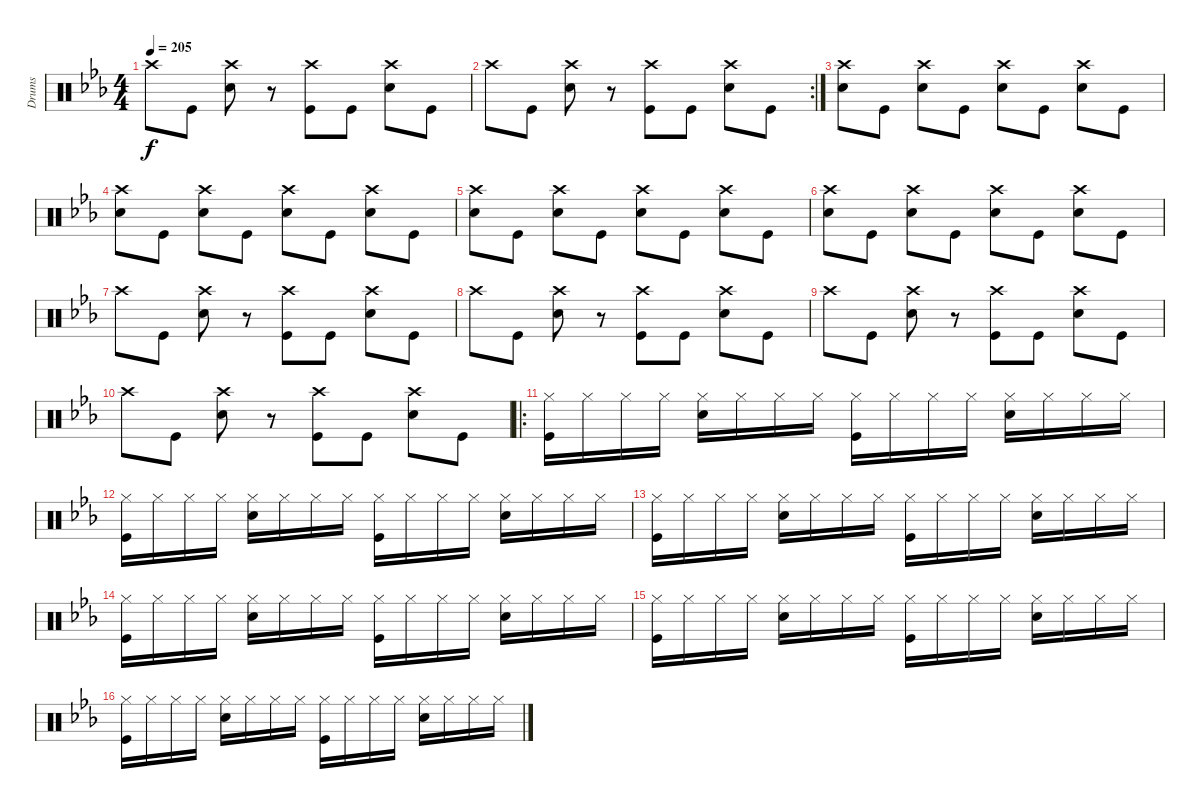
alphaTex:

\track ("Drums" "Drums") {instrument percussion}
\staff {score}
\articulation defaults
\ts (4 4)
\tempo 205
\clef neutral
\ks eb "Crash high (hit)".8{dy f} "Kick (hit)".8
("Crash high (hit)" "Snare (hit) 2").8 r.8 ("Crash high (hit)" "Kick (hit)").8 "Kick (hit)".8 ("Crash high (hit)" "Snare (hit) 2").8 "Kick (hit)".8 |
\rc 2 "Crash high (hit)".8 "Kick (hit)".8
("Crash high (hit)" "Snare (hit) 2").8 r.8 ("Crash high (hit)" "Kick (hit)").8 "Kick (hit)".8 ("Crash high (hit)" "Snare (hit) 2").8 "Kick (hit)".8 |
("Crash high (hit)" "Snare (hit) 2").8 "Kick (hit)".8 ("Crash high (hit)" "Snare (hit) 2").8 "Kick (hit)".8 ("Crash high (hit)" "Snare (hit) 2").8 "Kick (hit)".8 ("Crash high (hit)" "Snare (hit) 2").8 "Kick (hit)".8 |
("Crash high (hit)" "Snare (hit) 2").8 "Kick (hit)".8 ("Crash high (hit)" "Snare (hit) 2").8 "Kick (hit)".8 ("Crash high (hit)" "Snare (hit) 2").8 "Kick (hit)".8 ("Crash high (hit)" "Snare (hit) 2").8 "Kick (hit)".8 |
("Crash high (hit)" "Snare (hit) 2").8 "Kick (hit)".8 ("Crash high (hit)" "Snare (hit) 2").8 "Kick (hit)".8 ("Crash high (hit)" "Snare (hit) 2").8 "Kick (hit)".8 ("Crash high (hit)" "Snare (hit) 2").8 "Kick (hit)".8 |
("Crash high (hit)" "Snare (hit) 2").8 "Kick (hit)".8 ("Crash high (hit)" "Snare (hit) 2").8 "Kick (hit)".8 ("Crash high (hit)" "Snare (hit) 2").8 "Kick (hit)".8 ("Crash high (hit)" "Snare (hit) 2").8 "Kick (hit)".8 |
"Crash high (hit)".8 "Kick (hit)".8 ("Crash high (hit)" "Snare (hit) 2").8 r.8 ("Crash high (hit)" "Kick (hit)").8 "Kick (hit)".8 ("Crash high (hit)" "Snare (hit) 2").8 "Kick (hit)".8 |
"Crash high (hit)".8 "Kick (hit)".8 ("Crash high (hit)" "Snare (hit) 2").8 r.8 ("Crash high (hit)" "Kick (hit)").8 "Kick (hit)".8 ("Crash high (hit)" "Snare (hit) 2").8 "Kick (hit)".8 |
"Crash high (hit)".8 "Kick (hit)".8 ("Crash high (hit)" "Snare (hit) 2").8 r.8 ("Crash high (hit)" "Kick (hit)").8 "Kick (hit)".8 ("Crash high (hit)" "Snare (hit) 2").8 "Kick (hit)".8 |
"Crash high (hit)".8 "Kick (hit)".8 ("Crash high (hit)" "Snare (hit) 2").8 r.8 ("Crash high (hit)" "Kick (hit)").8 "Kick (hit)".8 ("Crash high (hit)" "Snare (hit) 2").8 "Kick (hit)".8 |
\ro
("Hi-Hat (closed)" "Kick (hit)").16 "Hi-Hat (closed)".16 "Hi-Hat (closed)".16 "Hi-Hat (closed)".16 ("Hi-Hat (closed)" "Snare (hit) 2").16 "Hi-Hat (closed)".16 "Hi-Hat (closed)".16 "Hi-Hat (closed)".16 ("Hi-Hat (closed)" "Kick (hit)").16 "Hi-Hat (closed)".16 "Hi-Hat (closed)".16 "Hi-Hat (closed)".16 ("Hi-Hat (closed)" "Snare (hit) 2").16 "Hi-Hat (closed)".16 "Hi-Hat (closed)".16 "Hi-Hat (closed)".16 |
("Hi-Hat (closed)" "Kick (hit)").16 "Hi-Hat (closed)".16 "Hi-Hat (closed)".16 "Hi-Hat (closed)".16 ("Hi-Hat (closed)" "Snare (hit) 2").16 "Hi-Hat (closed)".16 "Hi-Hat (closed)".16 "Hi-Hat (closed)".16 ("Hi-Hat (closed)" "Kick (hit)").16 "Hi-Hat (closed)".16 "Hi-Hat (closed)".16 "Hi-Hat (closed)".16 ("Hi-Hat (closed)" "Snare (hit) 2").16 "Hi-Hat (closed)".16 "Hi-Hat (closed)".16 "Hi-Hat (closed)".16 |
("Hi-Hat (closed)" "Kick (hit)").16 "Hi-Hat (closed)".16 "Hi-Hat (closed)".16 "Hi-Hat (closed)".16 ("Hi-Hat (closed)" "Snare (hit) 2").16 "Hi-Hat (closed)".16 "Hi-Hat (closed)".16 "Hi-Hat (closed)".16 ("Hi-Hat (closed)" "Kick (hit)").16 "Hi-Hat (closed)".16 "Hi-Hat (closed)".16 "Hi-Hat (closed)".16 ("Hi-Hat (closed)" "Snare (hit) 2").16 "Hi-Hat (closed)".16 "Hi-Hat (closed)".16 "Hi-Hat (closed)".16 |
("Hi-Hat (closed)" "Kick (hit)").16 "Hi-Hat (closed)".16 "Hi-Hat (closed)".16 "Hi-Hat (closed)".16 ("Hi-Hat (closed)" "Snare (hit) 2").16 "Hi-Hat (closed)".16 "Hi-Hat (closed)".16 "Hi-Hat (closed)".16 ("Hi-Hat (closed)" "Kick (hit)").16 "Hi-Hat (closed)".16 "Hi-Hat (closed)".16 "Hi-Hat (closed)".16 ("Hi-Hat (closed)" "Snare (hit) 2").16 "Hi-Hat (closed)".16 "Hi-Hat (closed)".16 "Hi-Hat (closed)".16 |
("Hi-Hat (closed)" "Kick (hit)").16 "Hi-Hat (closed)".16 "Hi-Hat (closed)".16 "Hi-Hat (closed)".16 ("Hi-Hat (closed)" "Snare (hit) 2").16 "Hi-Hat (closed)".16 "Hi-Hat (closed)".16 "Hi-Hat (closed)".16 ("Hi-Hat (closed)" "Kick (hit)").16 "Hi-Hat (closed)".16 "Hi-Hat (closed)".16 "Hi-Hat (closed)".16 ("Hi-Hat (closed)" "Snare (hit) 2").16 "Hi-Hat (closed)".16 "Hi-Hat (closed)".16 "Hi-Hat (closed)".16 |
("Hi-Hat (closed)" "Kick (hit)").16 "Hi-Hat (closed)".16 "Hi-Hat (closed)".16 "Hi-Hat (closed)".16 ("Hi-Hat (closed)" "Snare (hit) 2").16 "Hi-Hat (closed)".16 "Hi-Hat (closed)".16 "Hi-Hat (closed)".16 ("Hi-Hat (closed)" "Kick (hit)").16 "Hi-Hat (closed)".16 "Hi-Hat (closed)".16 "Hi-Hat (closed)".16 ("Hi-Hat (closed)" "Snare (hit) 2").16 "Hi-Hat (closed)".16 "Hi-Hat (closed)".16 "Hi-Hat (closed)".16
